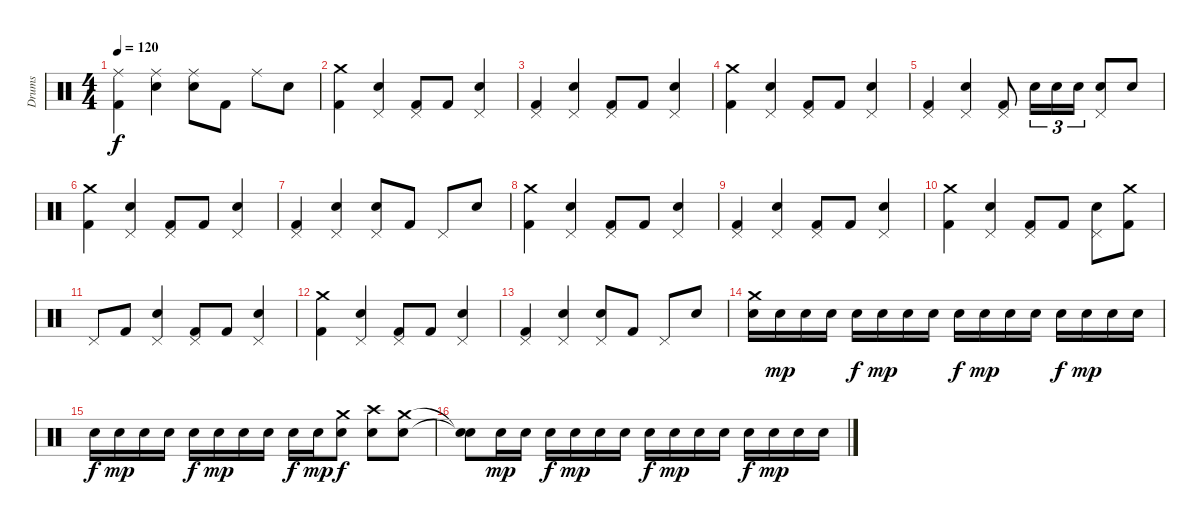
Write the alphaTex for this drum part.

\track ("Drums" "Drums") {instrument percussion}
\staff {score}
\articulation defaults
\ts (4 4)
\tempo 120
\clef neutral
\ks c
("Ride (middle)" "Kick (hit) 2").4{dy f} ("Ride (middle)" "Snare (hit) 2").4 ("Ride (middle)" "Snare (hit) 2").8 "Kick (hit) 2".8 "Ride (middle)".8 "Snare (hit) 2".8 |
("Kick (hit) 2" "Crash medium (hit)").4 ("Pedal Hi-Hat (hit)" "Snare (hit) 2").4 ("Pedal Hi-Hat (hit)" "Kick (hit) 2").8 "Kick (hit) 2".8 ("Pedal Hi-Hat (hit)" "Snare (hit) 2").4 |
("Pedal Hi-Hat (hit)" "Kick (hit) 2").4 ("Pedal Hi-Hat (hit)" "Snare (hit) 2").4 ("Pedal Hi-Hat (hit)" "Kick (hit) 2").8 "Kick (hit) 2".8 ("Pedal Hi-Hat (hit)" "Snare (hit) 2").4 |
("Kick (hit) 2" "Crash medium (hit)").4 ("Pedal Hi-Hat (hit)" "Snare (hit) 2").4 ("Pedal Hi-Hat (hit)" "Kick (hit) 2").8 "Kick (hit) 2".8 ("Pedal Hi-Hat (hit)" "Snare (hit) 2").4 |
("Pedal Hi-Hat (hit)" "Kick (hit) 2").4 ("Pedal Hi-Hat (hit)" "Snare (hit) 2").4 ("Pedal Hi-Hat (hit)" "Kick (hit) 2").8 "Snare (hit) 2".16{tu (3 2)} "Snare (hit) 2".16{tu (3 2)} "Snare (hit) 2".16{tu (3 2)} ("Pedal Hi-Hat (hit)" "Snare (hit) 2").8 "Snare (hit) 2".8 |
("Kick (hit) 2" "Crash medium (hit)").4 ("Pedal Hi-Hat (hit)" "Snare (hit) 2").4 ("Pedal Hi-Hat (hit)" "Kick (hit) 2").8 "Kick (hit) 2".8 ("Pedal Hi-Hat (hit)" "Snare (hit) 2").4 |
("Pedal Hi-Hat (hit)" "Kick (hit) 2").4 ("Pedal Hi-Hat (hit)" "Snare (hit) 2").4 ("Pedal Hi-Hat (hit)" "Snare (hit) 2").8 "Kick (hit) 2".8 "Pedal Hi-Hat (hit)".8 "Snare (hit) 2".8 |
("Kick (hit) 2" "Crash medium (hit)").4 ("Pedal Hi-Hat (hit)" "Snare (hit) 2").4 ("Pedal Hi-Hat (hit)" "Kick (hit) 2").8 "Kick (hit) 2".8 ("Pedal Hi-Hat (hit)" "Snare (hit) 2").4 |
("Pedal Hi-Hat (hit)" "Kick (hit) 2").4 ("Pedal Hi-Hat (hit)" "Snare (hit) 2").4 ("Pedal Hi-Hat (hit)" "Kick (hit) 2").8 "Kick (hit) 2".8 ("Pedal Hi-Hat (hit)" "Snare (hit) 2").4 |
("Kick (hit) 2" "Crash medium (hit)").4 ("Snare (hit) 2" "Pedal Hi-Hat (hit)").4 ("Kick (hit) 2" "Pedal Hi-Hat (hit)").8 "Kick (hit) 2".8 ("Snare (hit) 2" "Pedal Hi-Hat (hit)").8 ("Kick (hit) 2" "Crash medium (hit)").8 |
"Pedal Hi-Hat (hit)".8 "Kick (hit) 2".8 ("Pedal Hi-Hat (hit)" "Snare (hit) 2").4 ("Kick (hit) 2" "Pedal Hi-Hat (hit)").8 "Kick (hit) 2".8 ("Snare (hit) 2" "Pedal Hi-Hat (hit)").4 |
("Kick (hit) 2" "Crash medium (hit)").4 ("Pedal Hi-Hat (hit)" "Snare (hit) 2").4 ("Kick (hit) 2" "Pedal Hi-Hat (hit)").8 "Kick (hit) 2".8 ("Snare (hit) 2" "Pedal Hi-Hat (hit)").4 |
("Pedal Hi-Hat (hit)" "Kick (hit) 2").4 ("Pedal Hi-Hat (hit)" "Snare (hit) 2").4 ("Pedal Hi-Hat (hit)" "Snare (hit) 2").8 "Kick (hit) 2".8 "Pedal Hi-Hat (hit)".8 "Snare (hit) 2".8 |
("Crash medium (hit)" "Snare (hit) 2").16 "Snare (hit) 2".16{dy mp} "Snare (hit) 2".16 "Snare (hit) 2".16 "Snare (hit) 2".16{dy f} "Snare (hit) 2".16{dy mp} "Snare (hit) 2".16 "Snare (hit) 2".16 "Snare (hit) 2".16{dy f} "Snare (hit) 2".16{dy mp} "Snare (hit) 2".16 "Snare (hit) 2".16 "Snare (hit) 2".16{dy f} "Snare (hit) 2".16{dy mp} "Snare (hit) 2".16 "Snare (hit) 2".16 |
"Snare (hit) 2".16{dy f} "Snare (hit) 2".16{dy mp} "Snare (hit) 2".16 "Snare (hit) 2".16 "Snare (hit) 2".16{dy f} "Snare (hit) 2".16{dy mp} "Snare (hit) 2".16 "Snare (hit) 2".16 "Snare (hit) 2".16{dy f} "Snare (hit) 2".16{dy mp} ("Crash medium (hit)" "Snare (hit) 2").8{dy f} ("Crash high (hit)" "Snare (hit) 2").8 ("Snare (hit) 2" "Crash medium (hit)").8 |
("Snare (hit)"{t} "Snare (hit)"{t}).8 "Snare (hit) 2".16{dy mp} "Snare (hit) 2".16 "Snare (hit) 2".16{dy f} "Snare (hit) 2".16{dy mp} "Snare (hit) 2".16 "Snare (hit) 2".16 "Snare (hit) 2".16{dy f} "Snare (hit) 2".16{dy mp} "Snare (hit) 2".16 "Snare (hit) 2".16 "Snare (hit) 2".16{dy f} "Snare (hit) 2".16{dy mp} "Snare (hit) 2".16 "Snare (hit) 2".16
